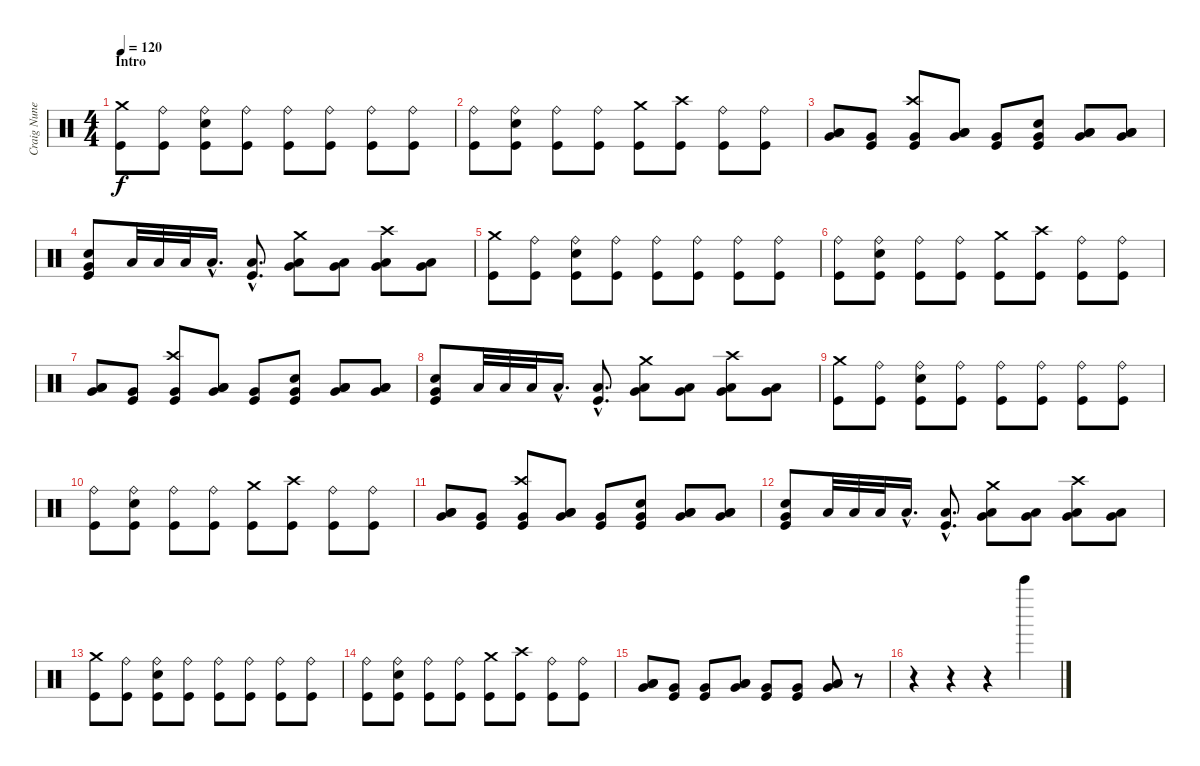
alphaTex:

\track ("Craig Nunenmacher" "Craig Nune") {instrument percussion}
\staff {score}
\articulation defaults
\ts (4 4)
\section ("" "Intro")
\tempo 120
\clef neutral
\ks c
("Crash medium (hit)" "Kick (hit)").8{dy f} ("Ride (bell)" "Kick (hit)").8 ("Ride (bell)" "Snare (hit) 2" "Kick (hit)").8 ("Ride (bell)" "Kick (hit)").8 ("Ride (bell)" "Kick (hit)").8 ("Ride (bell)" "Kick (hit)").8 ("Ride (bell)" "Kick (hit)").8 ("Ride (bell)" "Kick (hit)").8 |
("Ride (bell)" "Kick (hit)").8 ("Ride (bell)" "Snare (hit) 2" "Kick (hit)").8 ("Ride (bell)" "Kick (hit)").8 ("Ride (bell)" "Kick (hit)").8 ("Crash medium (hit)" "Kick (hit)").8 ("Crash high (hit)" "Kick (hit)").8 ("Ride (bell)" "Kick (hit)").8 ("Ride (bell)" "Kick (hit)").8 |
("Low Tom (hit)" "Low Tom (hit)" "Very Low Tom (hit)").8{bd 120} ("Very Low Tom (hit)" "Kick (hit)").8 ("Crash high (hit)" "Very Low Tom (hit)" "Kick (hit)").8 ("Low Tom (hit)" "Low Tom (hit)" "Very Low Tom (hit)").8{bd 120} ("Very Low Tom (hit)" "Kick (hit)").8 ("Snare (hit) 2" "Very Low Tom (hit)" "Kick (hit)").8 ("Low Tom (hit)" "Low Tom (hit)" "Very Low Tom (hit)").8{bd 120} ("Low Tom (hit)" "Low Tom (hit)" "Very Low Tom (hit)").8{bd 120} |
("Snare (hit) 2" "Very Low Tom (hit)" "Kick (hit)").8 "Low Tom (hit)".32 "Low Tom (hit)".32 "Low Tom (hit)".32 "Low Tom (hit)"{hac}.16{d} ("Low Tom (hit)"{hac} "Kick (hit)"{hac}).8{d} ("Crash medium (hit)" "Low Tom (hit)" "Very Low Tom (hit)").8 ("Low Tom (hit)" "Very Low Tom (hit)").8 ("Crash high (hit)" "Low Tom (hit)" "Very Low Tom (hit)").8 ("Low Tom (hit)" "Very Low Tom (hit)").8 |
("Crash medium (hit)" "Kick (hit)").8 ("Ride (bell)" "Kick (hit)").8 ("Ride (bell)" "Snare (hit) 2" "Kick (hit)").8 ("Ride (bell)" "Kick (hit)").8 ("Ride (bell)" "Kick (hit)").8 ("Ride (bell)" "Kick (hit)").8 ("Ride (bell)" "Kick (hit)").8 ("Ride (bell)" "Kick (hit)").8 |
("Ride (bell)" "Kick (hit)").8 ("Ride (bell)" "Snare (hit) 2" "Kick (hit)").8 ("Ride (bell)" "Kick (hit)").8 ("Ride (bell)" "Kick (hit)").8 ("Crash medium (hit)" "Kick (hit)").8 ("Crash high (hit)" "Kick (hit)").8 ("Ride (bell)" "Kick (hit)").8 ("Ride (bell)" "Kick (hit)").8 |
("Low Tom (hit)" "Low Tom (hit)" "Very Low Tom (hit)").8{bd 120} ("Very Low Tom (hit)" "Kick (hit)").8 ("Crash high (hit)" "Very Low Tom (hit)" "Kick (hit)").8 ("Low Tom (hit)" "Low Tom (hit)" "Very Low Tom (hit)").8{bd 120} ("Very Low Tom (hit)" "Kick (hit)").8 ("Snare (hit) 2" "Very Low Tom (hit)" "Kick (hit)").8 ("Low Tom (hit)" "Low Tom (hit)" "Very Low Tom (hit)").8{bd 120} ("Low Tom (hit)" "Low Tom (hit)" "Very Low Tom (hit)").8{bd 120} |
("Snare (hit) 2" "Very Low Tom (hit)" "Kick (hit)").8 "Low Tom (hit)".32 "Low Tom (hit)".32 "Low Tom (hit)".32 "Low Tom (hit)"{hac}.16{d} ("Low Tom (hit)"{hac} "Kick (hit)"{hac}).8{d} ("Crash medium (hit)" "Low Tom (hit)" "Very Low Tom (hit)").8 ("Low Tom (hit)" "Very Low Tom (hit)").8 ("Crash high (hit)" "Low Tom (hit)" "Very Low Tom (hit)").8 ("Low Tom (hit)" "Very Low Tom (hit)").8 |
("Crash medium (hit)" "Kick (hit)").8 ("Ride (bell)" "Kick (hit)").8 ("Ride (bell)" "Snare (hit) 2" "Kick (hit)").8 ("Ride (bell)" "Kick (hit)").8 ("Ride (bell)" "Kick (hit)").8 ("Ride (bell)" "Kick (hit)").8 ("Ride (bell)" "Kick (hit)").8 ("Ride (bell)" "Kick (hit)").8 |
("Ride (bell)" "Kick (hit)").8 ("Ride (bell)" "Snare (hit) 2" "Kick (hit)").8 ("Ride (bell)" "Kick (hit)").8 ("Ride (bell)" "Kick (hit)").8 ("Crash medium (hit)" "Kick (hit)").8 ("Crash high (hit)" "Kick (hit)").8 ("Ride (bell)" "Kick (hit)").8 ("Ride (bell)" "Kick (hit)").8 |
("Low Tom (hit)" "Low Tom (hit)" "Very Low Tom (hit)").8{bd 120} ("Very Low Tom (hit)" "Kick (hit)").8 ("Crash high (hit)" "Very Low Tom (hit)" "Kick (hit)").8 ("Low Tom (hit)" "Low Tom (hit)" "Very Low Tom (hit)").8{bd 120} ("Very Low Tom (hit)" "Kick (hit)").8 ("Snare (hit) 2" "Very Low Tom (hit)" "Kick (hit)").8 ("Low Tom (hit)" "Low Tom (hit)" "Very Low Tom (hit)").8{bd 120} ("Low Tom (hit)" "Low Tom (hit)" "Very Low Tom (hit)").8{bd 120} |
("Snare (hit) 2" "Very Low Tom (hit)" "Kick (hit)").8 "Low Tom (hit)".32 "Low Tom (hit)".32 "Low Tom (hit)".32 "Low Tom (hit)"{hac}.16{d} ("Low Tom (hit)"{hac} "Kick (hit)"{hac}).8{d} ("Crash medium (hit)" "Low Tom (hit)" "Very Low Tom (hit)").8 ("Low Tom (hit)" "Very Low Tom (hit)").8 ("Crash high (hit)" "Low Tom (hit)" "Very Low Tom (hit)").8 ("Low Tom (hit)" "Very Low Tom (hit)").8 |
("Crash medium (hit)" "Kick (hit)").8 ("Ride (bell)" "Kick (hit)").8 ("Ride (bell)" "Snare (hit) 2" "Kick (hit)").8 ("Ride (bell)" "Kick (hit)").8 ("Ride (bell)" "Kick (hit)").8 ("Ride (bell)" "Kick (hit)").8 ("Ride (bell)" "Kick (hit)").8 ("Ride (bell)" "Kick (hit)").8 |
("Ride (bell)" "Kick (hit)").8 ("Ride (bell)" "Snare (hit) 2" "Kick (hit)").8 ("Ride (bell)" "Kick (hit)").8 ("Ride (bell)" "Kick (hit)").8 ("Crash medium (hit)" "Kick (hit)").8 ("Crash high (hit)" "Kick (hit)").8 ("Ride (bell)" "Kick (hit)").8 ("Ride (bell)" "Kick (hit)").8 |
("Low Tom (hit)" "Low Tom (hit)" "Very Low Tom (hit)").8{bd 120} ("Very Low Tom (hit)" "Kick (hit)").8 ("Very Low Tom (hit)" "Kick (hit)").8 ("Low Tom (hit)" "Low Tom (hit)" "Very Low Tom (hit)").8{bd 120} ("Very Low Tom (hit)" "Kick (hit)").8 ("Very Low Tom (hit)" "Kick (hit)").8 ("Low Tom (hit)" "Low Tom (hit)" "Very Low Tom (hit)").8{bd 120} r.8 |
r.4 r.4 r.4 "Bell Tree (hit)".4
